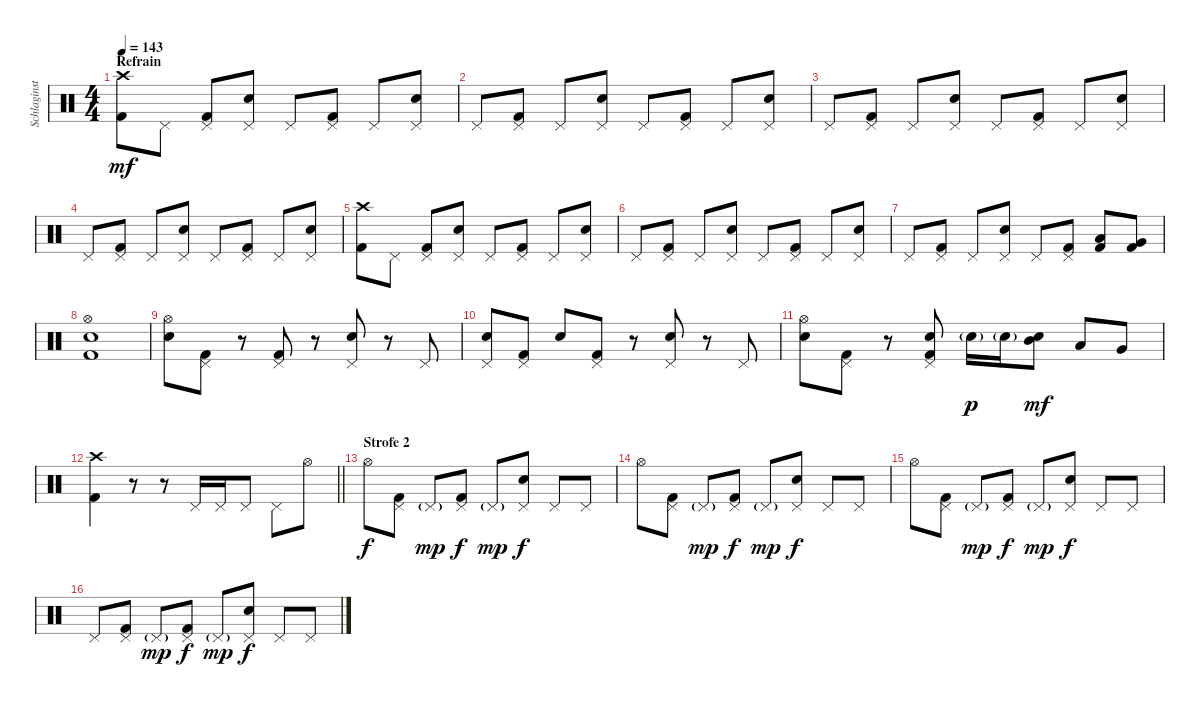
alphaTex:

\track ("Schlaginstrumente - Auswahl" "Schlaginst") {instrument percussion}
\staff {score}
\articulation defaults
\ts (4 4)
\section ("" "Refrain")
\tempo 143
\clef neutral
\ks c
("Crash high (hit)" "Kick (hit) 2").8{dy mf} "Pedal Hi-Hat (hit)".8 ("Pedal Hi-Hat (hit)" "Kick (hit) 2").8 ("Pedal Hi-Hat (hit)" "Electric Snare (hit)").8 "Pedal Hi-Hat (hit)".8 ("Pedal Hi-Hat (hit)" "Kick (hit) 2").8 "Pedal Hi-Hat (hit)".8 ("Pedal Hi-Hat (hit)" "Electric Snare (hit)").8 |
"Pedal Hi-Hat (hit)".8 ("Pedal Hi-Hat (hit)" "Kick (hit) 2").8 "Pedal Hi-Hat (hit)".8 ("Pedal Hi-Hat (hit)" "Electric Snare (hit)").8 "Pedal Hi-Hat (hit)".8 ("Pedal Hi-Hat (hit)" "Kick (hit) 2").8 "Pedal Hi-Hat (hit)".8 ("Pedal Hi-Hat (hit)" "Electric Snare (hit)").8 |
"Pedal Hi-Hat (hit)".8 ("Pedal Hi-Hat (hit)" "Kick (hit) 2").8 "Pedal Hi-Hat (hit)".8 ("Pedal Hi-Hat (hit)" "Electric Snare (hit)").8 "Pedal Hi-Hat (hit)".8 ("Pedal Hi-Hat (hit)" "Kick (hit) 2").8 "Pedal Hi-Hat (hit)".8 ("Pedal Hi-Hat (hit)" "Electric Snare (hit)").8 |
"Pedal Hi-Hat (hit)".8 ("Pedal Hi-Hat (hit)" "Kick (hit) 2").8 "Pedal Hi-Hat (hit)".8 ("Pedal Hi-Hat (hit)" "Electric Snare (hit)").8 "Pedal Hi-Hat (hit)".8 ("Pedal Hi-Hat (hit)" "Kick (hit) 2").8 "Pedal Hi-Hat (hit)".8 ("Pedal Hi-Hat (hit)" "Electric Snare (hit)").8 |
("Crash high (hit)" "Kick (hit) 2").8 "Pedal Hi-Hat (hit)".8 ("Pedal Hi-Hat (hit)" "Kick (hit) 2").8 ("Pedal Hi-Hat (hit)" "Electric Snare (hit)").8 "Pedal Hi-Hat (hit)".8 ("Pedal Hi-Hat (hit)" "Kick (hit) 2").8 "Pedal Hi-Hat (hit)".8 ("Pedal Hi-Hat (hit)" "Electric Snare (hit)").8 |
"Pedal Hi-Hat (hit)".8 ("Pedal Hi-Hat (hit)" "Kick (hit) 2").8 "Pedal Hi-Hat (hit)".8 ("Pedal Hi-Hat (hit)" "Electric Snare (hit)").8 "Pedal Hi-Hat (hit)".8 ("Pedal Hi-Hat (hit)" "Kick (hit) 2").8 "Pedal Hi-Hat (hit)".8 ("Pedal Hi-Hat (hit)" "Electric Snare (hit)").8 |
"Pedal Hi-Hat (hit)".8 ("Pedal Hi-Hat (hit)" "Kick (hit) 2").8 "Pedal Hi-Hat (hit)".8 ("Pedal Hi-Hat (hit)" "Electric Snare (hit)").8 "Pedal Hi-Hat (hit)".8 ("Pedal Hi-Hat (hit)" "Kick (hit) 2").8 ("Low Tom (hit)" "Kick (hit) 2").8 ("Very Low Tom (hit)" "Kick (hit) 2").8 |
("Hi-Hat (open)" "Electric Snare (hit)" "Kick (hit) 2").1 |
("Hi-Hat (open)" "Electric Snare (hit)").8 ("Pedal Hi-Hat (hit)" "Kick (hit) 2").8 r.8 ("Pedal Hi-Hat (hit)" "Kick (hit) 2").8 r.8 ("Pedal Hi-Hat (hit)" "Electric Snare (hit)").8 r.8 "Pedal Hi-Hat (hit)".8 |
("Pedal Hi-Hat (hit)" "Electric Snare (hit)").8 ("Pedal Hi-Hat (hit)" "Kick (hit) 2").8 "Electric Snare (hit)".8 ("Pedal Hi-Hat (hit)" "Kick (hit) 2").8 r.8 ("Pedal Hi-Hat (hit)" "Electric Snare (hit)").8 r.8 "Pedal Hi-Hat (hit)".8 |
("Hi-Hat (open)" "Electric Snare (hit)").8 ("Pedal Hi-Hat (hit)" "Kick (hit) 2").8 r.8 ("Pedal Hi-Hat (hit)" "Electric Snare (hit)" "Kick (hit) 2").8 "Electric Snare (hit)"{g}.16{dy p} "Electric Snare (hit)"{g}.16 ("Mid Tom (hit)" "Electric Snare (hit)").8{dy mf} "Low Tom (hit)".8 "Very Low Tom (hit)".8 |
\barLineRight lightlight
("Crash high (hit)" "Kick (hit) 2").4 r.8 r.8 "Pedal Hi-Hat (hit)".16 "Pedal Hi-Hat (hit)".16 "Pedal Hi-Hat (hit)".8 "Pedal Hi-Hat (hit)".8 "Hi-Hat (open)".8 |
\section ("" "Strofe 2")
"Hi-Hat (open)".8{dy f} ("Pedal Hi-Hat (hit)" "Kick (hit) 2").8 "Pedal Hi-Hat (hit)"{g}.8{dy mp} ("Pedal Hi-Hat (hit)" "Kick (hit) 2").8{dy f} "Pedal Hi-Hat (hit)"{g}.8{dy mp} ("Pedal Hi-Hat (hit)" "Electric Snare (hit)").8{dy f} "Pedal Hi-Hat (hit)".8 "Pedal Hi-Hat (hit)".8 |
"Hi-Hat (open)".8 ("Pedal Hi-Hat (hit)" "Kick (hit) 2").8 "Pedal Hi-Hat (hit)"{g}.8{dy mp} ("Pedal Hi-Hat (hit)" "Kick (hit) 2").8{dy f} "Pedal Hi-Hat (hit)"{g}.8{dy mp} ("Pedal Hi-Hat (hit)" "Electric Snare (hit)").8{dy f} "Pedal Hi-Hat (hit)".8 "Pedal Hi-Hat (hit)".8 |
"Hi-Hat (open)".8 ("Pedal Hi-Hat (hit)" "Kick (hit) 2").8 "Pedal Hi-Hat (hit)"{g}.8{dy mp} ("Pedal Hi-Hat (hit)" "Kick (hit) 2").8{dy f} "Pedal Hi-Hat (hit)"{g}.8{dy mp} ("Pedal Hi-Hat (hit)" "Electric Snare (hit)").8{dy f} "Pedal Hi-Hat (hit)".8 "Pedal Hi-Hat (hit)".8 |
"Pedal Hi-Hat (hit)".8 ("Pedal Hi-Hat (hit)" "Kick (hit) 2").8 "Pedal Hi-Hat (hit)"{g}.8{dy mp} ("Pedal Hi-Hat (hit)" "Kick (hit) 2").8{dy f} "Pedal Hi-Hat (hit)"{g}.8{dy mp} ("Pedal Hi-Hat (hit)" "Electric Snare (hit)").8{dy f} "Pedal Hi-Hat (hit)".8 "Pedal Hi-Hat (hit)".8
